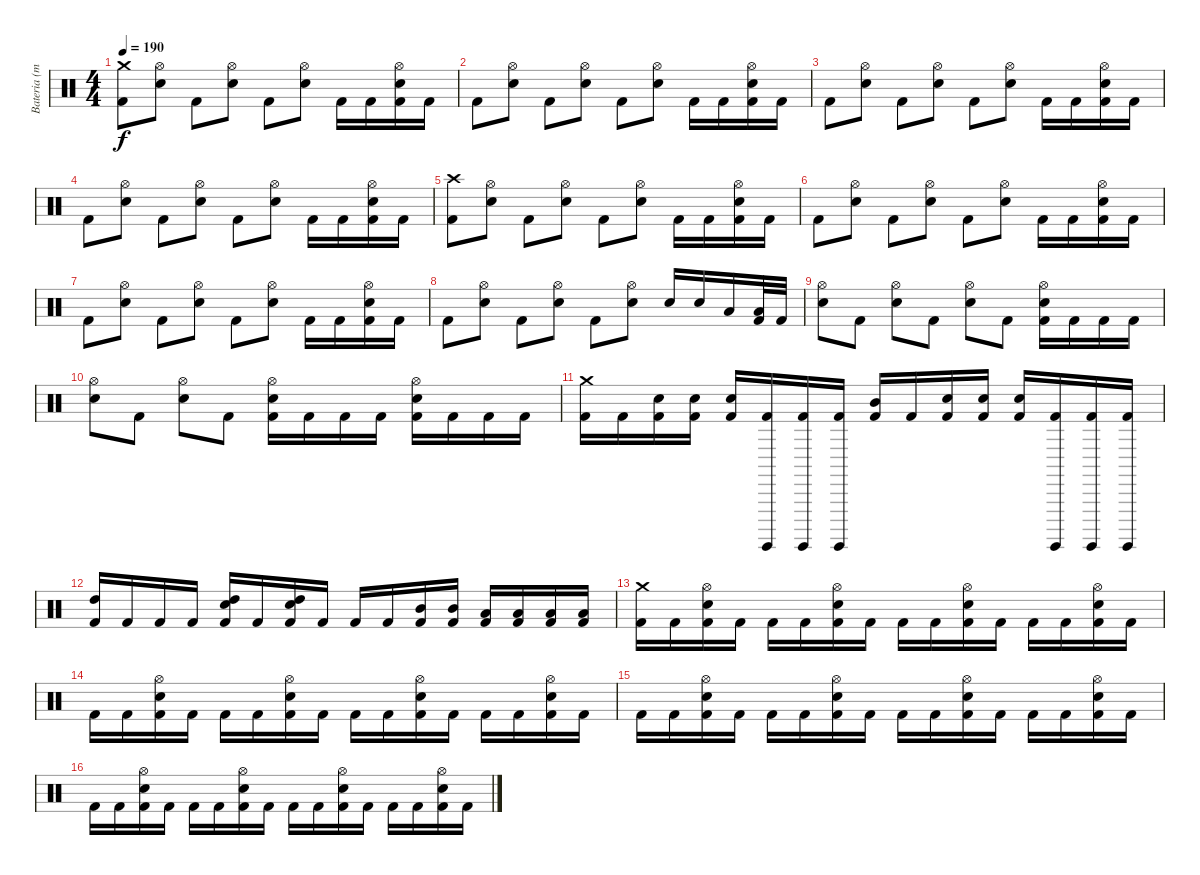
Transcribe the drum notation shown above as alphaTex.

\track ("Bateria (mestre Aquiles Priester)" "Bateria (m") {instrument percussion}
\staff {score}
\articulation defaults
\ts (4 4)
\tempo 190
\clef neutral
\ks c
("Kick (hit) 2" "Crash medium (hit)").8{dy f} ("Electric Snare (hit)" "Hi-Hat (open)").8 "Kick (hit) 2".8 ("Electric Snare (hit)" "Hi-Hat (open)").8 "Kick (hit) 2".8 ("Electric Snare (hit)" "Hi-Hat (open)").8 "Kick (hit) 2".16 "Kick (hit) 2".16 ("Kick (hit) 2" "Electric Snare (hit)" "Hi-Hat (open)").16 "Kick (hit) 2".16 |
"Kick (hit) 2".8 ("Electric Snare (hit)" "Hi-Hat (open)").8 "Kick (hit) 2".8 ("Electric Snare (hit)" "Hi-Hat (open)").8 "Kick (hit) 2".8 ("Electric Snare (hit)" "Hi-Hat (open)").8 "Kick (hit) 2".16 "Kick (hit) 2".16 ("Kick (hit) 2" "Electric Snare (hit)" "Hi-Hat (open)").16 "Kick (hit) 2".16 |
"Kick (hit) 2".8 ("Electric Snare (hit)" "Hi-Hat (open)").8 "Kick (hit) 2".8 ("Electric Snare (hit)" "Hi-Hat (open)").8 "Kick (hit) 2".8 ("Electric Snare (hit)" "Hi-Hat (open)").8 "Kick (hit) 2".16 "Kick (hit) 2".16 ("Kick (hit) 2" "Electric Snare (hit)" "Hi-Hat (open)").16 "Kick (hit) 2".16 |
"Kick (hit) 2".8 ("Electric Snare (hit)" "Hi-Hat (open)").8 "Kick (hit) 2".8 ("Electric Snare (hit)" "Hi-Hat (open)").8 "Kick (hit) 2".8 ("Electric Snare (hit)" "Hi-Hat (open)").8 "Kick (hit) 2".16 "Kick (hit) 2".16 ("Kick (hit) 2" "Electric Snare (hit)" "Hi-Hat (open)").16 "Kick (hit) 2".16 |
("Kick (hit) 2" "Crash high (hit)").8 ("Electric Snare (hit)" "Hi-Hat (open)").8 "Kick (hit) 2".8 ("Electric Snare (hit)" "Hi-Hat (open)").8 "Kick (hit) 2".8 ("Electric Snare (hit)" "Hi-Hat (open)").8 "Kick (hit) 2".16 "Kick (hit) 2".16 ("Kick (hit) 2" "Electric Snare (hit)" "Hi-Hat (open)").16 "Kick (hit) 2".16 |
"Kick (hit) 2".8 ("Electric Snare (hit)" "Hi-Hat (open)").8 "Kick (hit) 2".8 ("Electric Snare (hit)" "Hi-Hat (open)").8 "Kick (hit) 2".8 ("Electric Snare (hit)" "Hi-Hat (open)").8 "Kick (hit) 2".16 "Kick (hit) 2".16 ("Kick (hit) 2" "Electric Snare (hit)" "Hi-Hat (open)").16 "Kick (hit) 2".16 |
"Kick (hit) 2".8 ("Electric Snare (hit)" "Hi-Hat (open)").8 "Kick (hit) 2".8 ("Electric Snare (hit)" "Hi-Hat (open)").8 "Kick (hit) 2".8 ("Electric Snare (hit)" "Hi-Hat (open)").8 "Kick (hit) 2".16 "Kick (hit) 2".16 ("Kick (hit) 2" "Electric Snare (hit)" "Hi-Hat (open)").16 "Kick (hit) 2".16 |
"Kick (hit) 2".8 ("Electric Snare (hit)" "Hi-Hat (open)").8 "Kick (hit) 2".8 ("Electric Snare (hit)" "Hi-Hat (open)").8 "Kick (hit) 2".8 ("Electric Snare (hit)" "Hi-Hat (open)").8 "Electric Snare (hit)".16 "Electric Snare (hit)".16 "Low Tom (hit)".16 ("Kick (hit) 2" "Low Tom (hit)").32 "Kick (hit) 2".32 |
("Electric Snare (hit)" "Hi-Hat (open)").8 "Kick (hit) 2".8 ("Electric Snare (hit)" "Hi-Hat (open)").8 "Kick (hit) 2".8 ("Electric Snare (hit)" "Hi-Hat (open)").8 "Kick (hit) 2".8 ("Kick (hit) 2" "Electric Snare (hit)" "Hi-Hat (open)").16 "Kick (hit) 2".16 "Kick (hit) 2".16 "Kick (hit) 2".16 |
("Electric Snare (hit)" "Hi-Hat (open)").8 "Kick (hit) 2".8 ("Electric Snare (hit)" "Hi-Hat (open)").8 "Kick (hit) 2".8 ("Kick (hit) 2" "Electric Snare (hit)" "Hi-Hat (open)").16 "Kick (hit) 2".16 "Kick (hit) 2".16 "Kick (hit) 2".16 ("Kick (hit) 2" "Electric Snare (hit)" "Hi-Hat (open)").16 "Kick (hit) 2".16 "Kick (hit) 2".16 "Kick (hit) 2".16 |
("Kick (hit) 2" "Crash medium (hit)").16 "Kick (hit) 2".16 ("Kick (hit) 2" "Electric Snare (hit)").16 ("Kick (hit) 2" "Electric Snare (hit)").16 ("Kick (hit) 2" "Electric Snare (hit)").16 ("Kick (hit) 2" "Surdo (hit)").16 ("Kick (hit) 2" "Surdo (hit)").16 ("Kick (hit) 2" "Surdo (hit)").16 ("Kick (hit) 2" "Mid Tom (hit)").16 "Kick (hit) 2".16 ("Kick (hit) 2" "Electric Snare (hit)").16 ("Kick (hit) 2" "Electric Snare (hit)").16 ("Kick (hit) 2" "Electric Snare (hit)").16 ("Kick (hit) 2" "Surdo (hit)").16 ("Kick (hit) 2" "Surdo (hit)").16 ("Kick (hit) 2" "Surdo (hit)").16 |
("Kick (hit) 2" "High Tom (hit)").16 "Kick (hit) 2".16 "Kick (hit) 2".16 "Kick (hit) 2".16 ("Kick (hit) 2" "Electric Snare (hit)" "High Tom (hit)").16 "Kick (hit) 2".16 ("Kick (hit) 2" "Electric Snare (hit)" "High Tom (hit)").16 "Kick (hit) 2".16 "Kick (hit) 2".16 "Kick (hit) 2".16 ("Kick (hit) 2" "Mid Tom (hit)").16 ("Kick (hit) 2" "Mid Tom (hit)").16 ("Kick (hit) 2" "Low Tom (hit)").16 ("Kick (hit) 2" "Low Tom (hit)").16 ("Kick (hit) 2" "Low Tom (hit)").16 ("Kick (hit) 2" "Low Tom (hit)").16 |
("Kick (hit) 2" "Crash medium (hit)").16 "Kick (hit) 2".16 ("Kick (hit) 2" "Electric Snare (hit)" "Hi-Hat (open)").16 "Kick (hit) 2".16 "Kick (hit) 2".16 "Kick (hit) 2".16 ("Kick (hit) 2" "Electric Snare (hit)" "Hi-Hat (open)").16 "Kick (hit) 2".16 "Kick (hit) 2".16 "Kick (hit) 2".16 ("Kick (hit) 2" "Electric Snare (hit)" "Hi-Hat (open)").16 "Kick (hit) 2".16 "Kick (hit) 2".16 "Kick (hit) 2".16 ("Kick (hit) 2" "Electric Snare (hit)" "Hi-Hat (open)").16 "Kick (hit) 2".16 |
"Kick (hit) 2".16 "Kick (hit) 2".16 ("Kick (hit) 2" "Electric Snare (hit)" "Hi-Hat (open)").16 "Kick (hit) 2".16 "Kick (hit) 2".16 "Kick (hit) 2".16 ("Kick (hit) 2" "Electric Snare (hit)" "Hi-Hat (open)").16 "Kick (hit) 2".16 "Kick (hit) 2".16 "Kick (hit) 2".16 ("Kick (hit) 2" "Electric Snare (hit)" "Hi-Hat (open)").16 "Kick (hit) 2".16 "Kick (hit) 2".16 "Kick (hit) 2".16 ("Kick (hit) 2" "Electric Snare (hit)" "Hi-Hat (open)").16 "Kick (hit) 2".16 |
"Kick (hit) 2".16 "Kick (hit) 2".16 ("Kick (hit) 2" "Electric Snare (hit)" "Hi-Hat (open)").16 "Kick (hit) 2".16 "Kick (hit) 2".16 "Kick (hit) 2".16 ("Kick (hit) 2" "Electric Snare (hit)" "Hi-Hat (open)").16 "Kick (hit) 2".16 "Kick (hit) 2".16 "Kick (hit) 2".16 ("Kick (hit) 2" "Electric Snare (hit)" "Hi-Hat (open)").16 "Kick (hit) 2".16 "Kick (hit) 2".16 "Kick (hit) 2".16 ("Kick (hit) 2" "Electric Snare (hit)" "Hi-Hat (open)").16 "Kick (hit) 2".16 |
"Kick (hit) 2".16 "Kick (hit) 2".16 ("Kick (hit) 2" "Electric Snare (hit)" "Hi-Hat (open)").16 "Kick (hit) 2".16 "Kick (hit) 2".16 "Kick (hit) 2".16 ("Kick (hit) 2" "Electric Snare (hit)" "Hi-Hat (open)").16 "Kick (hit) 2".16 "Kick (hit) 2".16 "Kick (hit) 2".16 ("Kick (hit) 2" "Electric Snare (hit)" "Hi-Hat (open)").16 "Kick (hit) 2".16 "Kick (hit) 2".16 "Kick (hit) 2".16 ("Kick (hit) 2" "Electric Snare (hit)" "Hi-Hat (open)").16 "Kick (hit) 2".16
